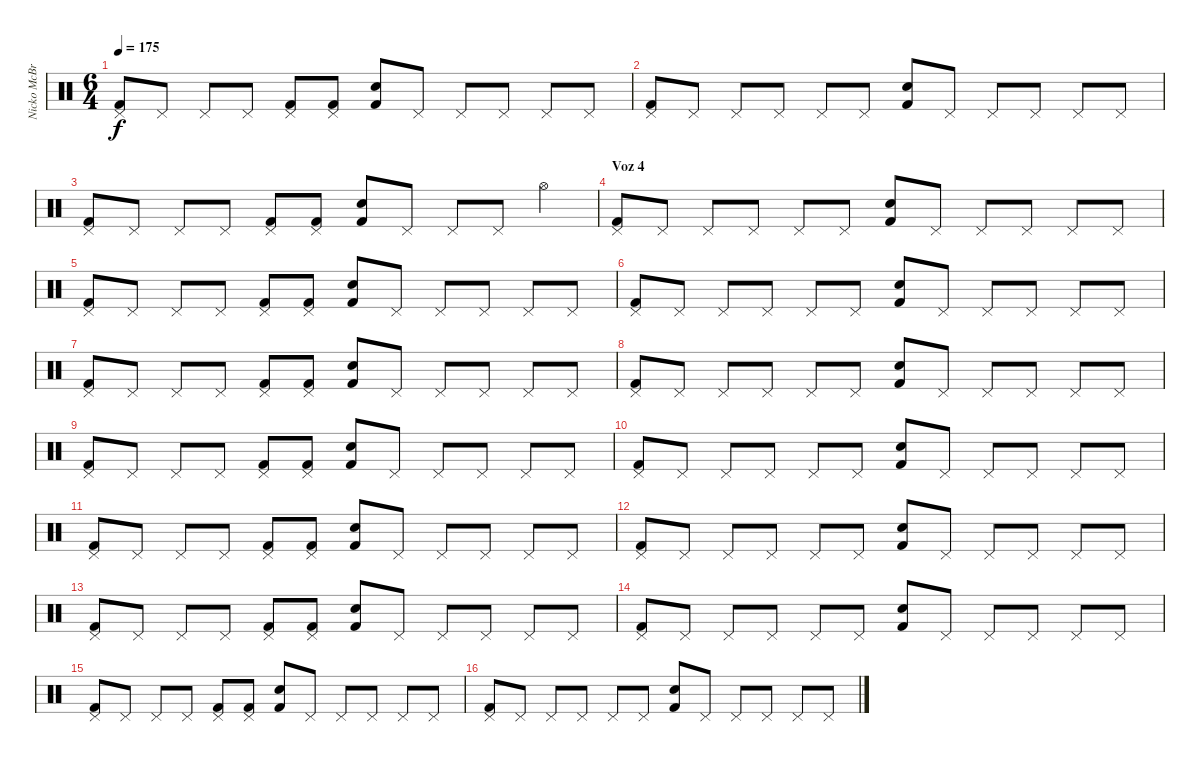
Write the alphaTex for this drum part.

\track ("Nicko McBrain" "Nicko McBr") {instrument percussion}
\staff {score}
\articulation defaults
\ts (6 4)
\tempo 175
\clef neutral
\ks c
("Pedal Hi-Hat (hit)" "Kick (hit) 2").8{dy f} "Pedal Hi-Hat (hit)".8 "Pedal Hi-Hat (hit)".8 "Pedal Hi-Hat (hit)".8 ("Pedal Hi-Hat (hit)" "Kick (hit) 2").8 ("Pedal Hi-Hat (hit)" "Kick (hit) 2").8 ("Snare (hit) 2" "Kick (hit) 2").8 "Pedal Hi-Hat (hit)".8 "Pedal Hi-Hat (hit)".8 "Pedal Hi-Hat (hit)".8 "Pedal Hi-Hat (hit)".8 "Pedal Hi-Hat (hit)".8 |
("Pedal Hi-Hat (hit)" "Kick (hit) 2").8 "Pedal Hi-Hat (hit)".8 "Pedal Hi-Hat (hit)".8 "Pedal Hi-Hat (hit)".8 "Pedal Hi-Hat (hit)".8 "Pedal Hi-Hat (hit)".8 ("Snare (hit) 2" "Kick (hit) 2").8 "Pedal Hi-Hat (hit)".8 "Pedal Hi-Hat (hit)".8 "Pedal Hi-Hat (hit)".8 "Pedal Hi-Hat (hit)".8 "Pedal Hi-Hat (hit)".8 |
("Pedal Hi-Hat (hit)" "Kick (hit) 2").8 "Pedal Hi-Hat (hit)".8 "Pedal Hi-Hat (hit)".8 "Pedal Hi-Hat (hit)".8 ("Pedal Hi-Hat (hit)" "Kick (hit) 2").8 ("Pedal Hi-Hat (hit)" "Kick (hit) 2").8 ("Snare (hit) 2" "Kick (hit) 2").8 "Pedal Hi-Hat (hit)".8 "Pedal Hi-Hat (hit)".8 "Pedal Hi-Hat (hit)".8 "Hi-Hat (open)".4 |
\section ("" "Voz 4")
("Pedal Hi-Hat (hit)" "Kick (hit) 2").8 "Pedal Hi-Hat (hit)".8 "Pedal Hi-Hat (hit)".8 "Pedal Hi-Hat (hit)".8 "Pedal Hi-Hat (hit)".8 "Pedal Hi-Hat (hit)".8 ("Snare (hit) 2" "Kick (hit) 2").8 "Pedal Hi-Hat (hit)".8 "Pedal Hi-Hat (hit)".8 "Pedal Hi-Hat (hit)".8 "Pedal Hi-Hat (hit)".8 "Pedal Hi-Hat (hit)".8 |
("Pedal Hi-Hat (hit)" "Kick (hit) 2").8 "Pedal Hi-Hat (hit)".8 "Pedal Hi-Hat (hit)".8 "Pedal Hi-Hat (hit)".8 ("Pedal Hi-Hat (hit)" "Kick (hit) 2").8 ("Pedal Hi-Hat (hit)" "Kick (hit) 2").8 ("Snare (hit) 2" "Kick (hit) 2").8 "Pedal Hi-Hat (hit)".8 "Pedal Hi-Hat (hit)".8 "Pedal Hi-Hat (hit)".8 "Pedal Hi-Hat (hit)".8 "Pedal Hi-Hat (hit)".8 |
("Pedal Hi-Hat (hit)" "Kick (hit) 2").8 "Pedal Hi-Hat (hit)".8 "Pedal Hi-Hat (hit)".8 "Pedal Hi-Hat (hit)".8 "Pedal Hi-Hat (hit)".8 "Pedal Hi-Hat (hit)".8 ("Snare (hit) 2" "Kick (hit) 2").8 "Pedal Hi-Hat (hit)".8 "Pedal Hi-Hat (hit)".8 "Pedal Hi-Hat (hit)".8 "Pedal Hi-Hat (hit)".8 "Pedal Hi-Hat (hit)".8 |
("Pedal Hi-Hat (hit)" "Kick (hit) 2").8 "Pedal Hi-Hat (hit)".8 "Pedal Hi-Hat (hit)".8 "Pedal Hi-Hat (hit)".8 ("Pedal Hi-Hat (hit)" "Kick (hit) 2").8 ("Pedal Hi-Hat (hit)" "Kick (hit) 2").8 ("Snare (hit) 2" "Kick (hit) 2").8 "Pedal Hi-Hat (hit)".8 "Pedal Hi-Hat (hit)".8 "Pedal Hi-Hat (hit)".8 "Pedal Hi-Hat (hit)".8 "Pedal Hi-Hat (hit)".8 |
("Pedal Hi-Hat (hit)" "Kick (hit) 2").8 "Pedal Hi-Hat (hit)".8 "Pedal Hi-Hat (hit)".8 "Pedal Hi-Hat (hit)".8 "Pedal Hi-Hat (hit)".8 "Pedal Hi-Hat (hit)".8 ("Snare (hit) 2" "Kick (hit) 2").8 "Pedal Hi-Hat (hit)".8 "Pedal Hi-Hat (hit)".8 "Pedal Hi-Hat (hit)".8 "Pedal Hi-Hat (hit)".8 "Pedal Hi-Hat (hit)".8 |
("Pedal Hi-Hat (hit)" "Kick (hit) 2").8 "Pedal Hi-Hat (hit)".8 "Pedal Hi-Hat (hit)".8 "Pedal Hi-Hat (hit)".8 ("Pedal Hi-Hat (hit)" "Kick (hit) 2").8 ("Pedal Hi-Hat (hit)" "Kick (hit) 2").8 ("Snare (hit) 2" "Kick (hit) 2").8 "Pedal Hi-Hat (hit)".8 "Pedal Hi-Hat (hit)".8 "Pedal Hi-Hat (hit)".8 "Pedal Hi-Hat (hit)".8 "Pedal Hi-Hat (hit)".8 |
("Pedal Hi-Hat (hit)" "Kick (hit) 2").8 "Pedal Hi-Hat (hit)".8 "Pedal Hi-Hat (hit)".8 "Pedal Hi-Hat (hit)".8 "Pedal Hi-Hat (hit)".8 "Pedal Hi-Hat (hit)".8 ("Snare (hit) 2" "Kick (hit) 2").8 "Pedal Hi-Hat (hit)".8 "Pedal Hi-Hat (hit)".8 "Pedal Hi-Hat (hit)".8 "Pedal Hi-Hat (hit)".8 "Pedal Hi-Hat (hit)".8 |
("Pedal Hi-Hat (hit)" "Kick (hit) 2").8 "Pedal Hi-Hat (hit)".8 "Pedal Hi-Hat (hit)".8 "Pedal Hi-Hat (hit)".8 ("Pedal Hi-Hat (hit)" "Kick (hit) 2").8 ("Pedal Hi-Hat (hit)" "Kick (hit) 2").8 ("Snare (hit) 2" "Kick (hit) 2").8 "Pedal Hi-Hat (hit)".8 "Pedal Hi-Hat (hit)".8 "Pedal Hi-Hat (hit)".8 "Pedal Hi-Hat (hit)".8 "Pedal Hi-Hat (hit)".8 |
("Pedal Hi-Hat (hit)" "Kick (hit) 2").8 "Pedal Hi-Hat (hit)".8 "Pedal Hi-Hat (hit)".8 "Pedal Hi-Hat (hit)".8 "Pedal Hi-Hat (hit)".8 "Pedal Hi-Hat (hit)".8 ("Snare (hit) 2" "Kick (hit) 2").8 "Pedal Hi-Hat (hit)".8 "Pedal Hi-Hat (hit)".8 "Pedal Hi-Hat (hit)".8 "Pedal Hi-Hat (hit)".8 "Pedal Hi-Hat (hit)".8 |
("Pedal Hi-Hat (hit)" "Kick (hit) 2").8 "Pedal Hi-Hat (hit)".8 "Pedal Hi-Hat (hit)".8 "Pedal Hi-Hat (hit)".8 ("Pedal Hi-Hat (hit)" "Kick (hit) 2").8 ("Pedal Hi-Hat (hit)" "Kick (hit) 2").8 ("Snare (hit) 2" "Kick (hit) 2").8 "Pedal Hi-Hat (hit)".8 "Pedal Hi-Hat (hit)".8 "Pedal Hi-Hat (hit)".8 "Pedal Hi-Hat (hit)".8 "Pedal Hi-Hat (hit)".8 |
("Pedal Hi-Hat (hit)" "Kick (hit) 2").8 "Pedal Hi-Hat (hit)".8 "Pedal Hi-Hat (hit)".8 "Pedal Hi-Hat (hit)".8 "Pedal Hi-Hat (hit)".8 "Pedal Hi-Hat (hit)".8 ("Snare (hit) 2" "Kick (hit) 2").8 "Pedal Hi-Hat (hit)".8 "Pedal Hi-Hat (hit)".8 "Pedal Hi-Hat (hit)".8 "Pedal Hi-Hat (hit)".8 "Pedal Hi-Hat (hit)".8 |
("Pedal Hi-Hat (hit)" "Kick (hit) 2").8 "Pedal Hi-Hat (hit)".8 "Pedal Hi-Hat (hit)".8 "Pedal Hi-Hat (hit)".8 ("Pedal Hi-Hat (hit)" "Kick (hit) 2").8 ("Pedal Hi-Hat (hit)" "Kick (hit) 2").8 ("Snare (hit) 2" "Kick (hit) 2").8 "Pedal Hi-Hat (hit)".8 "Pedal Hi-Hat (hit)".8 "Pedal Hi-Hat (hit)".8 "Pedal Hi-Hat (hit)".8 "Pedal Hi-Hat (hit)".8 |
("Pedal Hi-Hat (hit)" "Kick (hit) 2").8 "Pedal Hi-Hat (hit)".8 "Pedal Hi-Hat (hit)".8 "Pedal Hi-Hat (hit)".8 "Pedal Hi-Hat (hit)".8 "Pedal Hi-Hat (hit)".8 ("Snare (hit) 2" "Kick (hit) 2").8 "Pedal Hi-Hat (hit)".8 "Pedal Hi-Hat (hit)".8 "Pedal Hi-Hat (hit)".8 "Pedal Hi-Hat (hit)".8 "Pedal Hi-Hat (hit)".8
